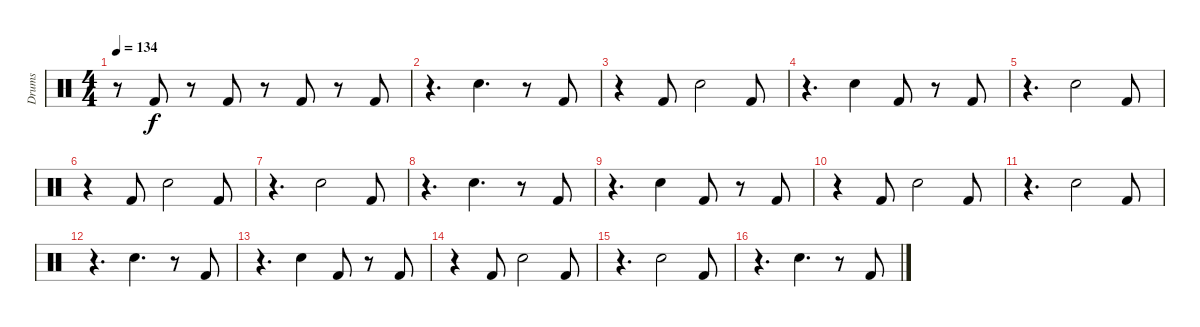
\track ("Drums" "Drums") {instrument percussion}
\staff {score}
\articulation defaults
\ts (4 4)
\tempo 134
\clef neutral
\ks c
r.8{dy f} "Kick (hit) 2".8 r.8 "Kick (hit) 2".8 r.8 "Kick (hit) 2".8 r.8 "Kick (hit) 2".8 |
r.4{d} "Electric Snare (hit)".4{d} r.8 "Kick (hit) 2".8 |
r.4 "Kick (hit) 2".8 "Electric Snare (hit)".2 "Kick (hit) 2".8 |
r.4{d} "Electric Snare (hit)".4 "Kick (hit) 2".8 r.8 "Kick (hit) 2".8 |
r.4{d} "Electric Snare (hit)".2 "Kick (hit) 2".8 |
r.4 "Kick (hit) 2".8 "Electric Snare (hit)".2 "Kick (hit) 2".8 |
r.4{d} "Electric Snare (hit)".2 "Kick (hit) 2".8 |
r.4{d} "Electric Snare (hit)".4{d} r.8 "Kick (hit) 2".8 |
r.4{d} "Electric Snare (hit)".4 "Kick (hit) 2".8 r.8 "Kick (hit) 2".8 |
r.4 "Kick (hit) 2".8 "Electric Snare (hit)".2 "Kick (hit) 2".8 |
r.4{d} "Electric Snare (hit)".2 "Kick (hit) 2".8 |
r.4{d} "Electric Snare (hit)".4{d} r.8 "Kick (hit) 2".8 |
r.4{d} "Electric Snare (hit)".4 "Kick (hit) 2".8 r.8 "Kick (hit) 2".8 |
r.4 "Kick (hit) 2".8 "Electric Snare (hit)".2 "Kick (hit) 2".8 |
r.4{d} "Electric Snare (hit)".2 "Kick (hit) 2".8 |
r.4{d} "Electric Snare (hit)".4{d} r.8 "Kick (hit) 2".8
